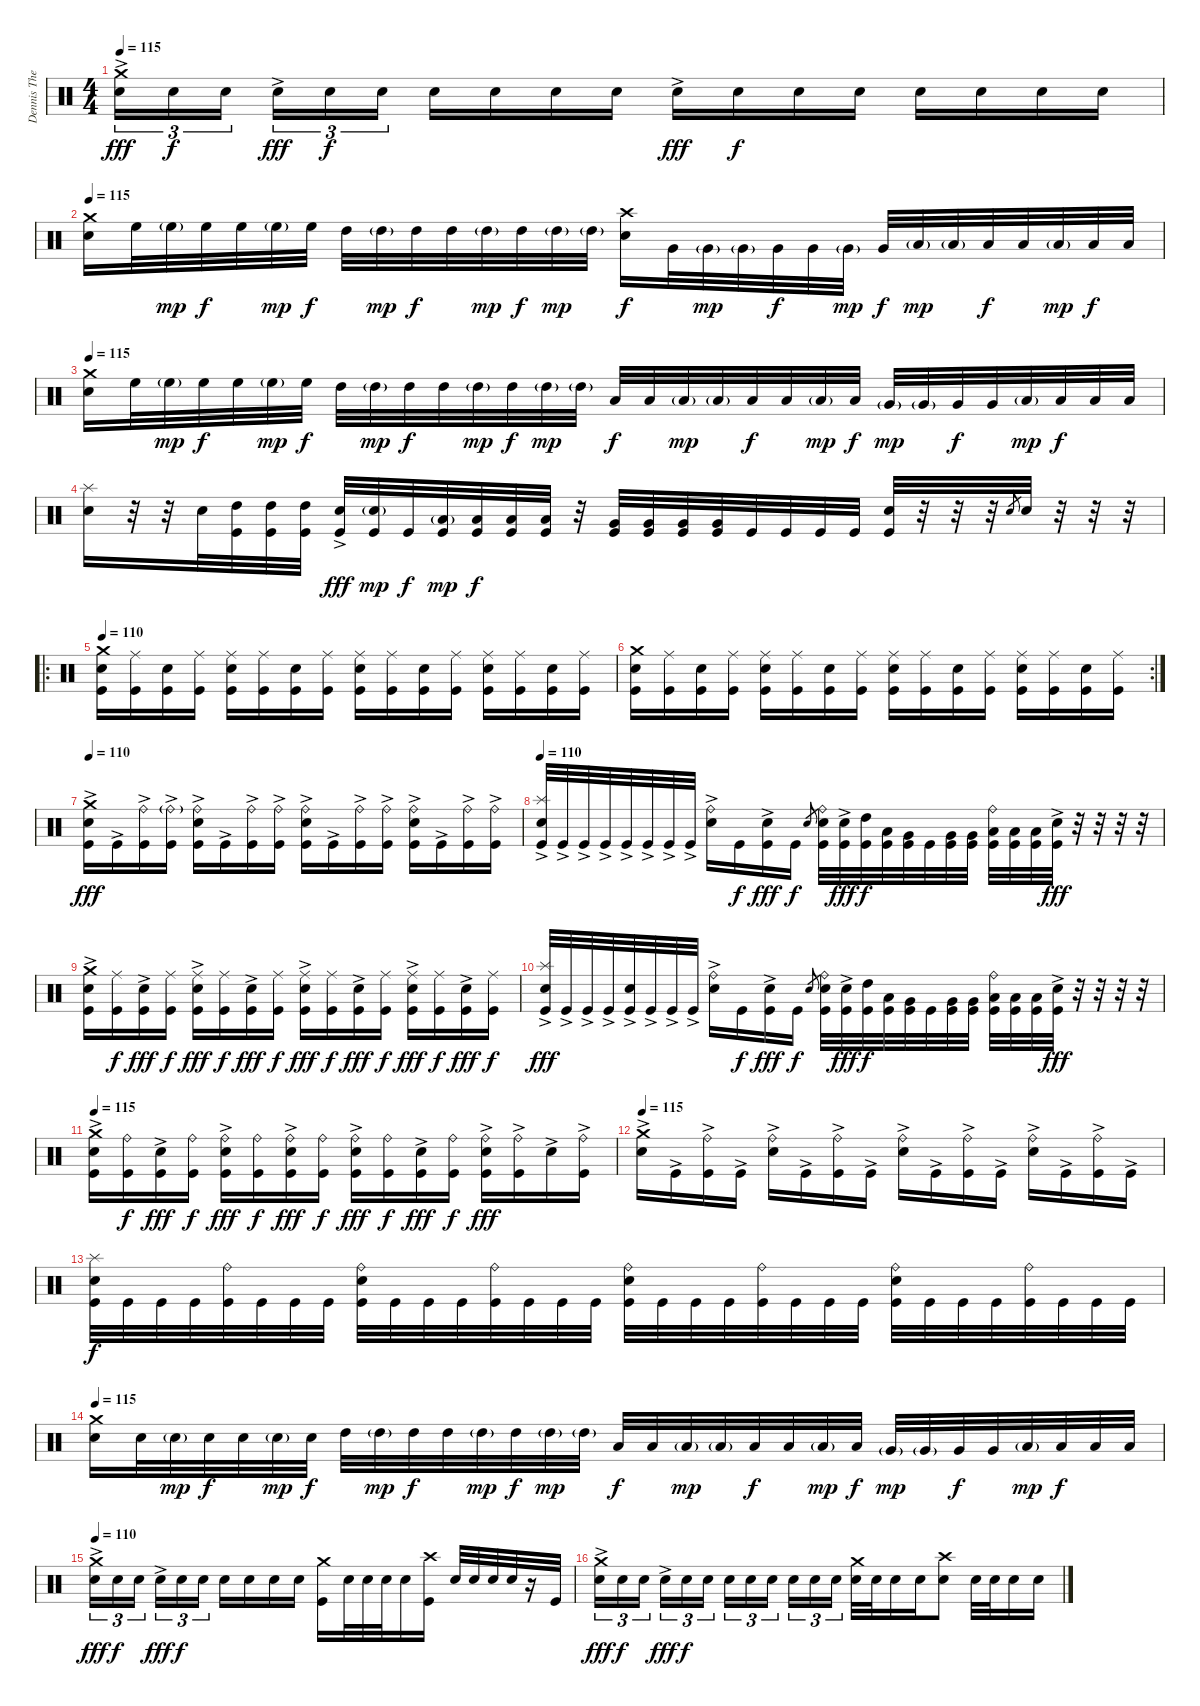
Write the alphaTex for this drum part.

\track ("Dennis The Menace" "Dennis The") {instrument percussion}
\staff {score}
\articulation defaults
\ts (4 4)
\tempo 110
\tempo 115
\clef neutral
\ks c
("Crash medium (hit)" "Electric Snare (hit)"{ac}).16{tu (3 2) dy fff} "Electric Snare (hit)".16{tu (3 2) dy f} "Electric Snare (hit)".16{tu (3 2)} "Electric Snare (hit)"{ac}.16{tu (3 2) dy fff} "Electric Snare (hit)".16{tu (3 2) dy f} "Electric Snare (hit)".16{tu (3 2)} "Electric Snare (hit)".16 "Electric Snare (hit)".16 "Electric Snare (hit)".16 "Electric Snare (hit)".16 "Electric Snare (hit)"{ac}.16{dy fff} "Electric Snare (hit)".16{dy f} "Electric Snare (hit)".16 "Electric Snare (hit)".16 "Electric Snare (hit)".16 "Electric Snare (hit)".16 "Electric Snare (hit)".16 "Electric Snare (hit)".16 |
\tempo 115
("Crash medium (hit)" "Electric Snare (hit)").16 "High Floor Tom (hit)".32 "High Floor Tom (hit)"{g}.32{dy mp} "High Floor Tom (hit)".32{dy f} "High Floor Tom (hit)".32 "High Floor Tom (hit)"{g}.32{dy mp} "High Floor Tom (hit)".32{dy f} "High Tom (hit)".32 "High Tom (hit)"{g}.32{dy mp} "High Tom (hit)".32{dy f} "High Tom (hit)".32 "High Tom (hit)"{g}.32{dy mp} "High Tom (hit)".32{dy f} "High Tom (hit)"{g}.32{dy mp} "High Tom (hit)"{g}.32 ("Crash high (hit)" "Electric Snare (hit)").16{dy f} "Very Low Tom (hit)".32 "Very Low Tom (hit)"{g}.32{dy mp} "Very Low Tom (hit)"{g}.32 "Very Low Tom (hit)".32{dy f} "Very Low Tom (hit)".32 "Very Low Tom (hit)"{g}.32{dy mp} "Very Low Tom (hit)".32{dy f} "Low Floor Tom (hit)"{g}.32{dy mp} "Low Floor Tom (hit)"{g}.32 "Low Floor Tom (hit)".32{dy f} "Low Floor Tom (hit)".32 "Low Floor Tom (hit)"{g}.32{dy mp} "Low Floor Tom (hit)".32{dy f} "Low Floor Tom (hit)".32 |
\tempo 110
\tempo 115
("Crash medium (hit)" "Electric Snare (hit)").16 "High Floor Tom (hit)".32 "High Floor Tom (hit)"{g}.32{dy mp} "High Floor Tom (hit)".32{dy f} "High Floor Tom (hit)".32 "High Floor Tom (hit)"{g}.32{dy mp} "High Floor Tom (hit)".32{dy f} "High Tom (hit)".32 "High Tom (hit)"{g}.32{dy mp} "High Tom (hit)".32{dy f} "High Tom (hit)".32 "High Tom (hit)"{g}.32{dy mp} "High Tom (hit)".32{dy f} "High Tom (hit)"{g}.32{dy mp} "High Tom (hit)"{g}.32 "Low Tom (hit)".32{dy f} "Low Tom (hit)".32 "Low Tom (hit)"{g}.32{dy mp} "Low Tom (hit)"{g}.32 "Low Tom (hit)".32{dy f} "Low Tom (hit)".32 "Low Tom (hit)"{g}.32{dy mp} "Low Tom (hit)".32{dy f} "Very Low Tom (hit)"{g}.32{dy mp} "Very Low Tom (hit)"{g}.32 "Very Low Tom (hit)".32{dy f} "Very Low Tom (hit)".32 "Low Floor Tom (hit)"{g}.32{dy mp} "Low Floor Tom (hit)".32{dy f} "Low Floor Tom (hit)".32 "Low Floor Tom (hit)".32 |
("Splash (hit)" "Electric Snare (hit)").16 r.32 r.32 "Electric Snare (hit)".32 ("High Tom (hit)" "Kick (hit)").32 ("High Tom (hit)" "Kick (hit)").32 ("High Tom (hit)" "Kick (hit)").32 ("Electric Snare (hit)"{ac} "Kick (hit)").32{dy fff} ("Electric Snare (hit)"{g} "Kick (hit)").32{dy mp} "Kick (hit)".32{dy f} ("Low Tom (hit)"{g} "Kick (hit)").32{dy mp} ("Low Tom (hit)" "Kick (hit)").32{dy f} ("Low Tom (hit)" "Kick (hit)").32 ("Low Tom (hit)" "Kick (hit)").32 r.32 ("Very Low Tom (hit)" "Kick (hit)").32 ("Very Low Tom (hit)" "Kick (hit)").32 ("Very Low Tom (hit)" "Kick (hit)").32 ("Very Low Tom (hit)" "Kick (hit)").32 "Kick (hit)".32 "Kick (hit)".32 "Kick (hit)".32 "Kick (hit)".32 ("Electric Snare (hit)" "Kick (hit)").32 r.32 r.32 r.32 "Electric Snare (hit)".8{gr} "Electric Snare (hit)".32 r.32 r.32 r.32 |
\ro
\tempo 110
("Crash medium (hit)" "Electric Snare (hit)" "Kick (hit)").16 ("Ride (middle)" "Kick (hit)").16 ("Electric Snare (hit)" "Kick (hit)").16 ("Ride (middle)" "Kick (hit)").16 ("Ride (middle)" "Electric Snare (hit)" "Kick (hit)").16 ("Ride (middle)" "Kick (hit)").16 ("Electric Snare (hit)" "Kick (hit)").16 ("Ride (middle)" "Kick (hit)").16 ("Ride (middle)" "Electric Snare (hit)" "Kick (hit)").16 ("Ride (middle)" "Kick (hit)").16 ("Electric Snare (hit)" "Kick (hit)").16 ("Ride (middle)" "Kick (hit)").16 ("Ride (middle)" "Electric Snare (hit)" "Kick (hit)").16 ("Ride (middle)" "Kick (hit)").16 ("Electric Snare (hit)" "Kick (hit)").16 ("Ride (middle)" "Kick (hit)").16 |
\rc 2
("Crash medium (hit)" "Electric Snare (hit)" "Kick (hit)").16 ("Ride (middle)" "Kick (hit)").16 ("Electric Snare (hit)" "Kick (hit)").16 ("Ride (middle)" "Kick (hit)").16 ("Ride (middle)" "Electric Snare (hit)" "Kick (hit)").16 ("Ride (middle)" "Kick (hit)").16 ("Electric Snare (hit)" "Kick (hit)").16 ("Ride (middle)" "Kick (hit)").16 ("Ride (middle)" "Electric Snare (hit)" "Kick (hit)").16 ("Ride (middle)" "Kick (hit)").16 ("Electric Snare (hit)" "Kick (hit)").16 ("Ride (middle)" "Kick (hit)").16 ("Ride (middle)" "Electric Snare (hit)" "Kick (hit)").16 ("Ride (middle)" "Kick (hit)").16 ("Electric Snare (hit)" "Kick (hit)").16 ("Ride (middle)" "Kick (hit)").16 |
\tempo 115
\tempo 110
("Crash medium (hit)" "Electric Snare (hit)" "Kick (hit)"{ac}).16{dy fff} "Kick (hit)"{ac}.16 ("Ride (bell)" "Kick (hit)"{ac}).16 ("Ride (bell)"{g} "Kick (hit)"{ac}).16 ("Ride (bell)" "Electric Snare (hit)" "Kick (hit)"{ac}).16 "Kick (hit)"{ac}.16 ("Ride (bell)" "Kick (hit)"{ac}).16 ("Ride (bell)" "Kick (hit)"{ac}).16 ("Ride (bell)" "Electric Snare (hit)" "Kick (hit)"{ac}).16 "Kick (hit)"{ac}.16 ("Ride (bell)" "Kick (hit)"{ac}).16 ("Ride (bell)" "Kick (hit)"{ac}).16 ("Ride (bell)" "Electric Snare (hit)" "Kick (hit)"{ac}).16 "Kick (hit)"{ac}.16 ("Ride (bell)" "Kick (hit)"{ac}).16 ("Ride (bell)" "Kick (hit)"{ac}).16 |
\tempo 110
("Splash (hit)" "Electric Snare (hit)"{ac} "Kick (hit)"{ac}).32 "Kick (hit)"{ac}.32 "Kick (hit)"{ac}.32 "Kick (hit)"{ac}.32 "Kick (hit)"{ac}.32 "Kick (hit)"{ac}.32 "Kick (hit)"{ac}.32 "Kick (hit)"{ac}.32 ("Ride (bell)" "Electric Snare (hit)"{ac}).16 "Kick (hit)".16{dy f} ("Electric Snare (hit)"{ac} "Kick (hit)").16{dy fff} "Kick (hit)".16{dy f} "Electric Snare (hit)".8{gr} ("Ride (bell)" "Electric Snare (hit)" "Kick (hit)").32 ("Electric Snare (hit)"{ac} "Kick (hit)").32{dy fff} ("High Tom (hit)" "Kick (hit)").32{dy f} ("Low Tom (hit)" "Kick (hit)").32 ("Very Low Tom (hit)" "Kick (hit)").32 "Kick (hit)".32 ("Very Low Tom (hit)" "Kick (hit)").32 ("Very Low Tom (hit)" "Kick (hit)").32 ("Ride (bell)" "Low Floor Tom (hit)" "Kick (hit)").32 ("Low Floor Tom (hit)" "Kick (hit)").32 ("Low Floor Tom (hit)" "Kick (hit)").32 ("Electric Snare (hit)"{ac} "Kick (hit)").32{dy fff} r.32 r.32 r.32 r.32 |
("Crash medium (hit)" "Electric Snare (hit)"{ac} "Kick (hit)").16 ("Ride (middle)" "Kick (hit)").16{dy f} ("Electric Snare (hit)"{ac} "Kick (hit)").16{dy fff} ("Ride (middle)" "Kick (hit)").16{dy f} ("Ride (middle)" "Electric Snare (hit)"{ac} "Kick (hit)").16{dy fff} ("Ride (middle)" "Kick (hit)").16{dy f} ("Electric Snare (hit)"{ac} "Kick (hit)").16{dy fff} ("Ride (middle)" "Kick (hit)").16{dy f} ("Ride (middle)" "Electric Snare (hit)"{ac} "Kick (hit)").16{dy fff} ("Ride (middle)" "Kick (hit)").16{dy f} ("Electric Snare (hit)"{ac} "Kick (hit)").16{dy fff} ("Ride (middle)" "Kick (hit)").16{dy f} ("Ride (middle)" "Electric Snare (hit)"{ac} "Kick (hit)").16{dy fff} ("Ride (middle)" "Kick (hit)").16{dy f} ("Electric Snare (hit)"{ac} "Kick (hit)").16{dy fff} ("Ride (middle)" "Kick (hit)").16{dy f} |
("Splash (hit)" "Electric Snare (hit)"{ac} "Kick (hit)"{ac}).32{dy fff} "Kick (hit)"{ac}.32 "Kick (hit)"{ac}.32 "Kick (hit)"{ac}.32 ("Electric Snare (hit)"{ac} "Kick (hit)"{ac}).32 "Kick (hit)"{ac}.32 "Kick (hit)"{ac}.32 "Kick (hit)"{ac}.32 ("Ride (bell)" "Electric Snare (hit)"{ac}).16 "Kick (hit)".16{dy f} ("Electric Snare (hit)"{ac} "Kick (hit)").16{dy fff} "Kick (hit)".16{dy f} "Electric Snare (hit)".8{gr} ("Ride (bell)" "Electric Snare (hit)" "Kick (hit)").32 ("Electric Snare (hit)"{ac} "Kick (hit)").32{dy fff} ("High Tom (hit)" "Kick (hit)").32{dy f} ("Low Tom (hit)" "Kick (hit)").32 ("Very Low Tom (hit)" "Kick (hit)").32 "Kick (hit)".32 ("Very Low Tom (hit)" "Kick (hit)").32 ("Very Low Tom (hit)" "Kick (hit)").32 ("Ride (bell)" "Low Floor Tom (hit)" "Kick (hit)").32 ("Low Floor Tom (hit)" "Kick (hit)").32 ("Low Floor Tom (hit)" "Kick (hit)").32 ("Electric Snare (hit)"{ac} "Kick (hit)").32{dy fff} r.32 r.32 r.32 r.32 |
\tempo 115
("Crash medium (hit)" "Electric Snare (hit)"{ac} "Kick (hit)").16 ("Ride (bell)" "Kick (hit)").16{dy f} ("Electric Snare (hit)"{ac} "Kick (hit)").16{dy fff} ("Ride (bell)" "Kick (hit)").16{dy f} ("Ride (bell)" "Electric Snare (hit)"{ac} "Kick (hit)").16{dy fff} ("Ride (bell)" "Kick (hit)").16{dy f} ("Ride (bell)" "Electric Snare (hit)"{ac} "Kick (hit)").16{dy fff} ("Ride (bell)" "Kick (hit)").16{dy f} ("Ride (bell)" "Electric Snare (hit)"{ac} "Kick (hit)").16{dy fff} ("Ride (bell)" "Kick (hit)").16{dy f} ("Electric Snare (hit)"{ac} "Kick (hit)").16{dy fff} ("Ride (bell)" "Kick (hit)").16{dy f} ("Ride (bell)" "Electric Snare (hit)"{ac} "Kick (hit)").16{dy fff} ("Ride (bell)" "Kick (hit)"{ac}).16 "Electric Snare (hit)"{ac}.16 ("Ride (bell)" "Kick (hit)"{ac}).16 |
\tempo 115
("Crash medium (hit)" "Electric Snare (hit)"{ac}).16 "Kick (hit)"{ac}.16 ("Ride (bell)" "Kick (hit)"{ac}).16 "Kick (hit)"{ac}.16 ("Ride (bell)" "Electric Snare (hit)"{ac}).16 "Kick (hit)"{ac}.16 ("Ride (bell)" "Kick (hit)"{ac}).16 "Kick (hit)"{ac}.16 ("Ride (bell)" "Electric Snare (hit)"{ac}).16 "Kick (hit)"{ac}.16 ("Ride (bell)" "Kick (hit)"{ac}).16 "Kick (hit)"{ac}.16 ("Ride (bell)" "Electric Snare (hit)"{ac}).16 "Kick (hit)"{ac}.16 ("Ride (bell)" "Kick (hit)"{ac}).16 "Kick (hit)"{ac}.16 |
("Splash (hit)" "Electric Snare (hit)" "Kick (hit)").32{dy f} "Kick (hit)".32 "Kick (hit)".32 "Kick (hit)".32 ("Ride (bell)" "Kick (hit)").32 "Kick (hit)".32 "Kick (hit)".32 "Kick (hit)".32 ("Ride (bell)" "Electric Snare (hit)" "Kick (hit)").32 "Kick (hit)".32 "Kick (hit)".32 "Kick (hit)".32 ("Ride (bell)" "Kick (hit)").32 "Kick (hit)".32 "Kick (hit)".32 "Kick (hit)".32 ("Ride (bell)" "Electric Snare (hit)" "Kick (hit)").32 "Kick (hit)".32 "Kick (hit)".32 "Kick (hit)".32 ("Ride (bell)" "Kick (hit)").32 "Kick (hit)".32 "Kick (hit)".32 "Kick (hit)".32 ("Ride (bell)" "Electric Snare (hit)" "Kick (hit)").32 "Kick (hit)".32 "Kick (hit)".32 "Kick (hit)".32 ("Ride (bell)" "Kick (hit)").32 "Kick (hit)".32 "Kick (hit)".32 "Kick (hit)".32 |
\tempo 115
("Crash medium (hit)" "Electric Snare (hit)").16 "Electric Snare (hit)".32 "Electric Snare (hit)"{g}.32{dy mp} "Electric Snare (hit)".32{dy f} "Electric Snare (hit)".32 "Electric Snare (hit)"{g}.32{dy mp} "Electric Snare (hit)".32{dy f} "High Tom (hit)".32 "High Tom (hit)"{g}.32{dy mp} "High Tom (hit)".32{dy f} "High Tom (hit)".32 "High Tom (hit)"{g}.32{dy mp} "High Tom (hit)".32{dy f} "High Tom (hit)"{g}.32{dy mp} "High Tom (hit)"{g}.32 "Low Tom (hit)".32{dy f} "Low Tom (hit)".32 "Low Tom (hit)"{g}.32{dy mp} "Low Tom (hit)"{g}.32 "Low Tom (hit)".32{dy f} "Low Tom (hit)".32 "Low Tom (hit)"{g}.32{dy mp} "Low Tom (hit)".32{dy f} "Very Low Tom (hit)"{g}.32{dy mp} "Very Low Tom (hit)"{g}.32 "Very Low Tom (hit)".32{dy f} "Very Low Tom (hit)".32 "Low Floor Tom (hit)"{g}.32{dy mp} "Low Floor Tom (hit)".32{dy f} "Low Floor Tom (hit)".32 "Low Floor Tom (hit)".32 |
\tempo 110
("Crash medium (hit)" "Electric Snare (hit)"{ac}).16{tu (3 2) dy fff} "Electric Snare (hit)".16{tu (3 2) dy f} "Electric Snare (hit)".16{tu (3 2)} "Electric Snare (hit)"{ac}.16{tu (3 2) dy fff} "Electric Snare (hit)".16{tu (3 2) dy f} "Electric Snare (hit)".16{tu (3 2)} "Electric Snare (hit)".16 "Electric Snare (hit)".16 "Electric Snare (hit)".16 "Electric Snare (hit)".16 ("Crash medium (hit)" "Kick (hit)").16 "Electric Snare (hit)".32 "Electric Snare (hit)".32 "Electric Snare (hit)".32 "Electric Snare (hit)".16 ("Crash high (hit)" "Kick (hit)").16 "Electric Snare (hit)".32 "Electric Snare (hit)".32 "Electric Snare (hit)".32 "Electric Snare (hit)".32 r.16 "Kick (hit)".32 |
("Crash medium (hit)" "Electric Snare (hit)"{ac}).16{tu (3 2) dy fff} "Electric Snare (hit)".16{tu (3 2) dy f} "Electric Snare (hit)".16{tu (3 2)} "Electric Snare (hit)"{ac}.16{tu (3 2) dy fff} "Electric Snare (hit)".16{tu (3 2) dy f} "Electric Snare (hit)".16{tu (3 2)} "Electric Snare (hit)".16{tu (3 2)} "Electric Snare (hit)".16{tu (3 2)} "Electric Snare (hit)".16{tu (3 2)} "Electric Snare (hit)".16{tu (3 2)} "Electric Snare (hit)".16{tu (3 2)} "Electric Snare (hit)".16{tu (3 2)} ("Crash medium (hit)" "Electric Snare (hit)").32 "Electric Snare (hit)".32 "Electric Snare (hit)".16 "Electric Snare (hit)".16 ("Crash high (hit)" "Electric Snare (hit)").8 "Electric Snare (hit)".32 "Electric Snare (hit)".32 "Electric Snare (hit)".16 "Electric Snare (hit)".16
